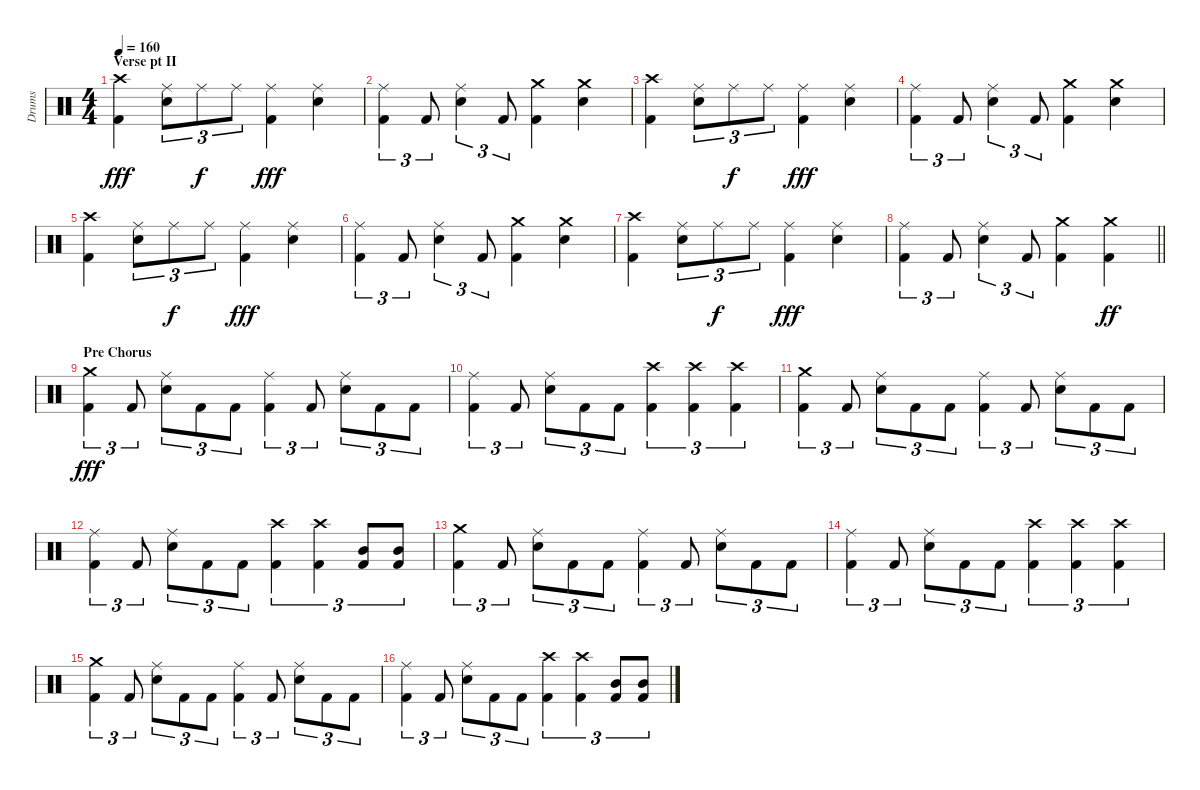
\track ("Drums" "Drums") {instrument percussion}
\staff {score}
\articulation defaults
\ts (4 4)
\section ("" "Verse pt II")
\tempo 160
\clef neutral
\ks c
("Crash high (hit)" "Kick (hit) 2").4{dy fff} ("Ride (middle)" "Snare (hit) 2").8{tu (3 2)} "Ride (middle)".8{tu (3 2) dy f} "Ride (middle)".8{tu (3 2)} ("Ride (middle)" "Kick (hit) 2").4{dy fff} ("Ride (middle)" "Snare (hit) 2").4 |
("Ride (middle)" "Kick (hit) 2").4{tu (3 2)} "Kick (hit) 2".8{tu (3 2)} ("Ride (middle)" "Snare (hit) 2").4{tu (3 2)} "Kick (hit) 2".8{tu (3 2)} ("Crash medium (hit)" "Kick (hit) 2").4 ("Crash medium (hit)" "Snare (hit) 2").4 |
("Crash high (hit)" "Kick (hit) 2").4 ("Ride (middle)" "Snare (hit) 2").8{tu (3 2)} "Ride (middle)".8{tu (3 2) dy f} "Ride (middle)".8{tu (3 2)} ("Ride (middle)" "Kick (hit) 2").4{dy fff} ("Ride (middle)" "Snare (hit) 2").4 |
("Ride (middle)" "Kick (hit) 2").4{tu (3 2)} "Kick (hit) 2".8{tu (3 2)} ("Ride (middle)" "Snare (hit) 2").4{tu (3 2)} "Kick (hit) 2".8{tu (3 2)} ("Crash medium (hit)" "Kick (hit) 2").4 ("Crash medium (hit)" "Snare (hit) 2").4 |
("Crash high (hit)" "Kick (hit) 2").4 ("Ride (middle)" "Snare (hit) 2").8{tu (3 2)} "Ride (middle)".8{tu (3 2) dy f} "Ride (middle)".8{tu (3 2)} ("Ride (middle)" "Kick (hit) 2").4{dy fff} ("Ride (middle)" "Snare (hit) 2").4 |
("Ride (middle)" "Kick (hit) 2").4{tu (3 2)} "Kick (hit) 2".8{tu (3 2)} ("Ride (middle)" "Snare (hit) 2").4{tu (3 2)} "Kick (hit) 2".8{tu (3 2)} ("Crash medium (hit)" "Kick (hit) 2").4 ("Crash medium (hit)" "Snare (hit) 2").4 |
("Crash high (hit)" "Kick (hit) 2").4 ("Ride (middle)" "Snare (hit) 2").8{tu (3 2)} "Ride (middle)".8{tu (3 2) dy f} "Ride (middle)".8{tu (3 2)} ("Ride (middle)" "Kick (hit) 2").4{dy fff} ("Ride (middle)" "Snare (hit) 2").4 |
\barLineRight lightlight
("Ride (middle)" "Kick (hit) 2").4{tu (3 2)} "Kick (hit) 2".8{tu (3 2)} ("Ride (middle)" "Snare (hit) 2").4{tu (3 2)} "Kick (hit) 2".8{tu (3 2)} ("Crash medium (hit)" "Kick (hit) 2").4 ("Crash medium (hit)" "Kick (hit) 2").4{dy ff} |
\section ("" "Pre Chorus")
("Crash medium (hit)" "Kick (hit) 2").4{tu (3 2) dy fff} "Kick (hit) 2".8{tu (3 2)} ("Ride (middle)" "Snare (hit) 2").8{tu (3 2)} "Kick (hit) 2".8{tu (3 2)} "Kick (hit) 2".8{tu (3 2)} ("Ride (middle)" "Kick (hit) 2").4{tu (3 2)} "Kick (hit) 2".8{tu (3 2)} ("Ride (middle)" "Snare (hit) 2").8{tu (3 2)} "Kick (hit) 2".8{tu (3 2)} "Kick (hit) 2".8{tu (3 2)} |
("Ride (middle)" "Kick (hit) 2").4{tu (3 2)} "Kick (hit) 2".8{tu (3 2)} ("Ride (middle)" "Snare (hit) 2").8{tu (3 2)} "Kick (hit) 2".8{tu (3 2)} "Kick (hit) 2".8{tu (3 2)} ("Crash high (hit)" "Kick (hit) 2").4{tu (3 2)} ("Crash high (hit)" "Kick (hit) 2").4{tu (3 2)} ("Crash high (hit)" "Kick (hit) 2").4{tu (3 2)} |
("Crash medium (hit)" "Kick (hit) 2").4{tu (3 2)} "Kick (hit) 2".8{tu (3 2)} ("Ride (middle)" "Snare (hit) 2").8{tu (3 2)} "Kick (hit) 2".8{tu (3 2)} "Kick (hit) 2".8{tu (3 2)} ("Ride (middle)" "Kick (hit) 2").4{tu (3 2)} "Kick (hit) 2".8{tu (3 2)} ("Ride (middle)" "Snare (hit) 2").8{tu (3 2)} "Kick (hit) 2".8{tu (3 2)} "Kick (hit) 2".8{tu (3 2)} |
("Ride (middle)" "Kick (hit) 2").4{tu (3 2)} "Kick (hit) 2".8{tu (3 2)} ("Ride (middle)" "Snare (hit) 2").8{tu (3 2)} "Kick (hit) 2".8{tu (3 2)} "Kick (hit) 2".8{tu (3 2)} ("Crash high (hit)" "Kick (hit) 2").4{tu (3 2)} ("Crash high (hit)" "Kick (hit) 2").4{tu (3 2)} ("Mid Tom (hit)" "Kick (hit) 2").8{tu (3 2)} ("Mid Tom (hit)" "Kick (hit) 2").8{tu (3 2)} |
("Crash medium (hit)" "Kick (hit) 2").4{tu (3 2)} "Kick (hit) 2".8{tu (3 2)} ("Ride (middle)" "Snare (hit) 2").8{tu (3 2)} "Kick (hit) 2".8{tu (3 2)} "Kick (hit) 2".8{tu (3 2)} ("Ride (middle)" "Kick (hit) 2").4{tu (3 2)} "Kick (hit) 2".8{tu (3 2)} ("Ride (middle)" "Snare (hit) 2").8{tu (3 2)} "Kick (hit) 2".8{tu (3 2)} "Kick (hit) 2".8{tu (3 2)} |
("Ride (middle)" "Kick (hit) 2").4{tu (3 2)} "Kick (hit) 2".8{tu (3 2)} ("Ride (middle)" "Snare (hit) 2").8{tu (3 2)} "Kick (hit) 2".8{tu (3 2)} "Kick (hit) 2".8{tu (3 2)} ("Crash high (hit)" "Kick (hit) 2").4{tu (3 2)} ("Crash high (hit)" "Kick (hit) 2").4{tu (3 2)} ("Crash high (hit)" "Kick (hit) 2").4{tu (3 2)} |
("Crash medium (hit)" "Kick (hit) 2").4{tu (3 2)} "Kick (hit) 2".8{tu (3 2)} ("Ride (middle)" "Snare (hit) 2").8{tu (3 2)} "Kick (hit) 2".8{tu (3 2)} "Kick (hit) 2".8{tu (3 2)} ("Ride (middle)" "Kick (hit) 2").4{tu (3 2)} "Kick (hit) 2".8{tu (3 2)} ("Ride (middle)" "Snare (hit) 2").8{tu (3 2)} "Kick (hit) 2".8{tu (3 2)} "Kick (hit) 2".8{tu (3 2)} |
("Ride (middle)" "Kick (hit) 2").4{tu (3 2)} "Kick (hit) 2".8{tu (3 2)} ("Ride (middle)" "Snare (hit) 2").8{tu (3 2)} "Kick (hit) 2".8{tu (3 2)} "Kick (hit) 2".8{tu (3 2)} ("Crash high (hit)" "Kick (hit) 2").4{tu (3 2)} ("Crash high (hit)" "Kick (hit) 2").4{tu (3 2)} ("Mid Tom (hit)" "Kick (hit) 2").8{tu (3 2)} ("Mid Tom (hit)" "Kick (hit) 2").8{tu (3 2)}
